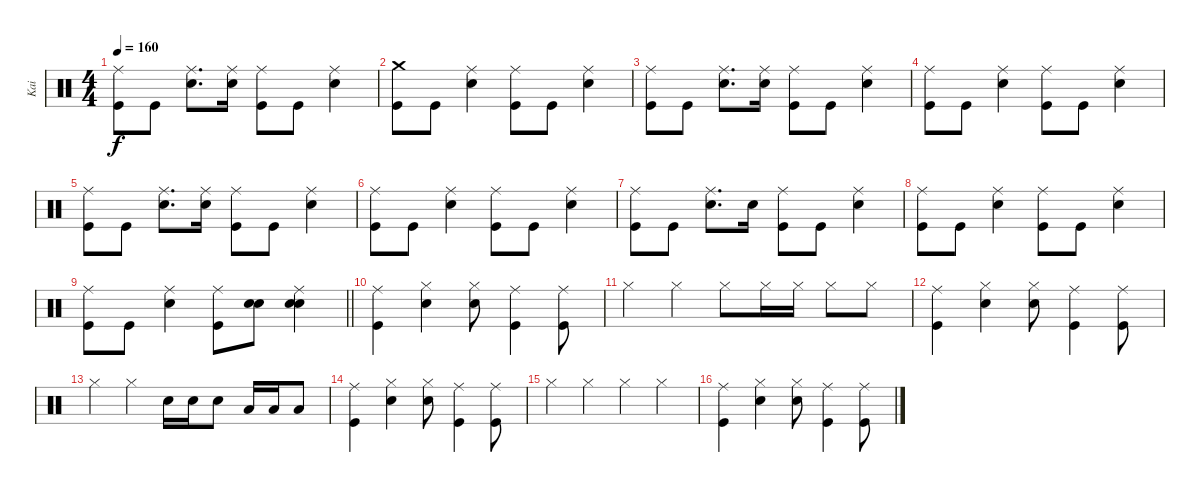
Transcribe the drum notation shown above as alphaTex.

\track ("Kai" "Kai") {instrument percussion}
\staff {score}
\articulation defaults
\ts (4 4)
\tempo 160
\clef neutral
\ks c
("Ride (middle)" "Kick (hit)").8{dy f} "Kick (hit)".8 ("Ride (middle)" "Snare (hit) 2").8{d} ("Ride (middle)" "Snare (hit) 2").16 ("Ride (middle)" "Kick (hit)").8 "Kick (hit)".8 ("Ride (middle)" "Snare (hit) 2").4 |
("Crash medium (hit)" "Kick (hit)").8 "Kick (hit)".8 ("Ride (middle)" "Snare (hit) 2").4 ("Ride (middle)" "Kick (hit)").8 "Kick (hit)".8 ("Ride (middle)" "Snare (hit) 2").4 |
("Ride (middle)" "Kick (hit)").8 "Kick (hit)".8 ("Ride (middle)" "Snare (hit) 2").8{d} ("Ride (middle)" "Snare (hit) 2").16 ("Ride (middle)" "Kick (hit)").8 "Kick (hit)".8 ("Ride (middle)" "Snare (hit) 2").4 |
("Ride (middle)" "Kick (hit)").8 "Kick (hit)".8 ("Ride (middle)" "Snare (hit) 2").4 ("Ride (middle)" "Kick (hit)").8 "Kick (hit)".8 ("Ride (middle)" "Snare (hit) 2").4 |
("Ride (middle)" "Kick (hit)").8 "Kick (hit)".8 ("Ride (middle)" "Snare (hit) 2").8{d} ("Ride (middle)" "Snare (hit) 2").16 ("Ride (middle)" "Kick (hit)").8 "Kick (hit)".8 ("Ride (middle)" "Snare (hit) 2").4 |
("Ride (middle)" "Kick (hit)").8 "Kick (hit)".8 ("Ride (middle)" "Snare (hit) 2").4 ("Ride (middle)" "Kick (hit)").8 "Kick (hit)".8 ("Ride (middle)" "Snare (hit) 2").4 |
("Ride (middle)" "Kick (hit)").8 "Kick (hit)".8 ("Ride (middle)" "Snare (hit) 2").8{d} "Snare (hit) 2".16 ("Ride (middle)" "Kick (hit)").8 "Kick (hit)".8 ("Ride (middle)" "Snare (hit) 2").4 |
("Ride (middle)" "Kick (hit)").8 "Kick (hit)".8 ("Ride (middle)" "Snare (hit) 2").4 ("Ride (middle)" "Kick (hit)").8 "Kick (hit)".8 ("Ride (middle)" "Snare (hit) 2").4 |
\barLineRight lightlight
("Ride (middle)" "Kick (hit)").8 "Kick (hit)".8 ("Ride (middle)" "Snare (hit) 2").4 ("Ride (middle)" "Kick (hit)").8 ("Snare (hit) 2" "Snare (hit) 2").8 ("Ride (middle)" "Snare (hit) 2" "Snare (hit) 2").4 |
\section ("" "")
("Ride (middle)" "Kick (hit)").4 ("Hi-Hat (closed)" "Snare (hit) 2").4 ("Hi-Hat (closed)" "Snare (hit) 2").8 ("Ride (middle)" "Kick (hit)").4 ("Ride (middle)" "Kick (hit)").8 |
"Hi-Hat (closed)".4 "Hi-Hat (closed)".4 "Hi-Hat (closed)".8 "Hi-Hat (closed)".16 "Hi-Hat (closed)".16 "Hi-Hat (closed)".8 "Hi-Hat (closed)".8 |
("Ride (middle)" "Kick (hit)").4 ("Hi-Hat (closed)" "Snare (hit) 2").4 ("Hi-Hat (closed)" "Snare (hit) 2").8 ("Ride (middle)" "Kick (hit)").4 ("Ride (middle)" "Kick (hit)").8 |
"Hi-Hat (closed)".4 "Hi-Hat (closed)".4 "Snare (hit) 2".16 "Snare (hit) 2".16 "Snare (hit) 2".8 "Low Tom (hit)".16 "Low Tom (hit)".16 "Low Tom (hit)".8 |
("Ride (middle)" "Kick (hit)").4 ("Hi-Hat (closed)" "Snare (hit) 2").4 ("Hi-Hat (closed)" "Snare (hit) 2").8 ("Ride (middle)" "Kick (hit)").4 ("Ride (middle)" "Kick (hit)").8 |
"Hi-Hat (closed)".4 "Hi-Hat (closed)".4 "Hi-Hat (closed)".4 "Hi-Hat (closed)".4 |
("Ride (middle)" "Kick (hit)").4 ("Hi-Hat (closed)" "Snare (hit) 2").4 ("Hi-Hat (closed)" "Snare (hit) 2").8 ("Ride (middle)" "Kick (hit)").4 ("Ride (middle)" "Kick (hit)").8
